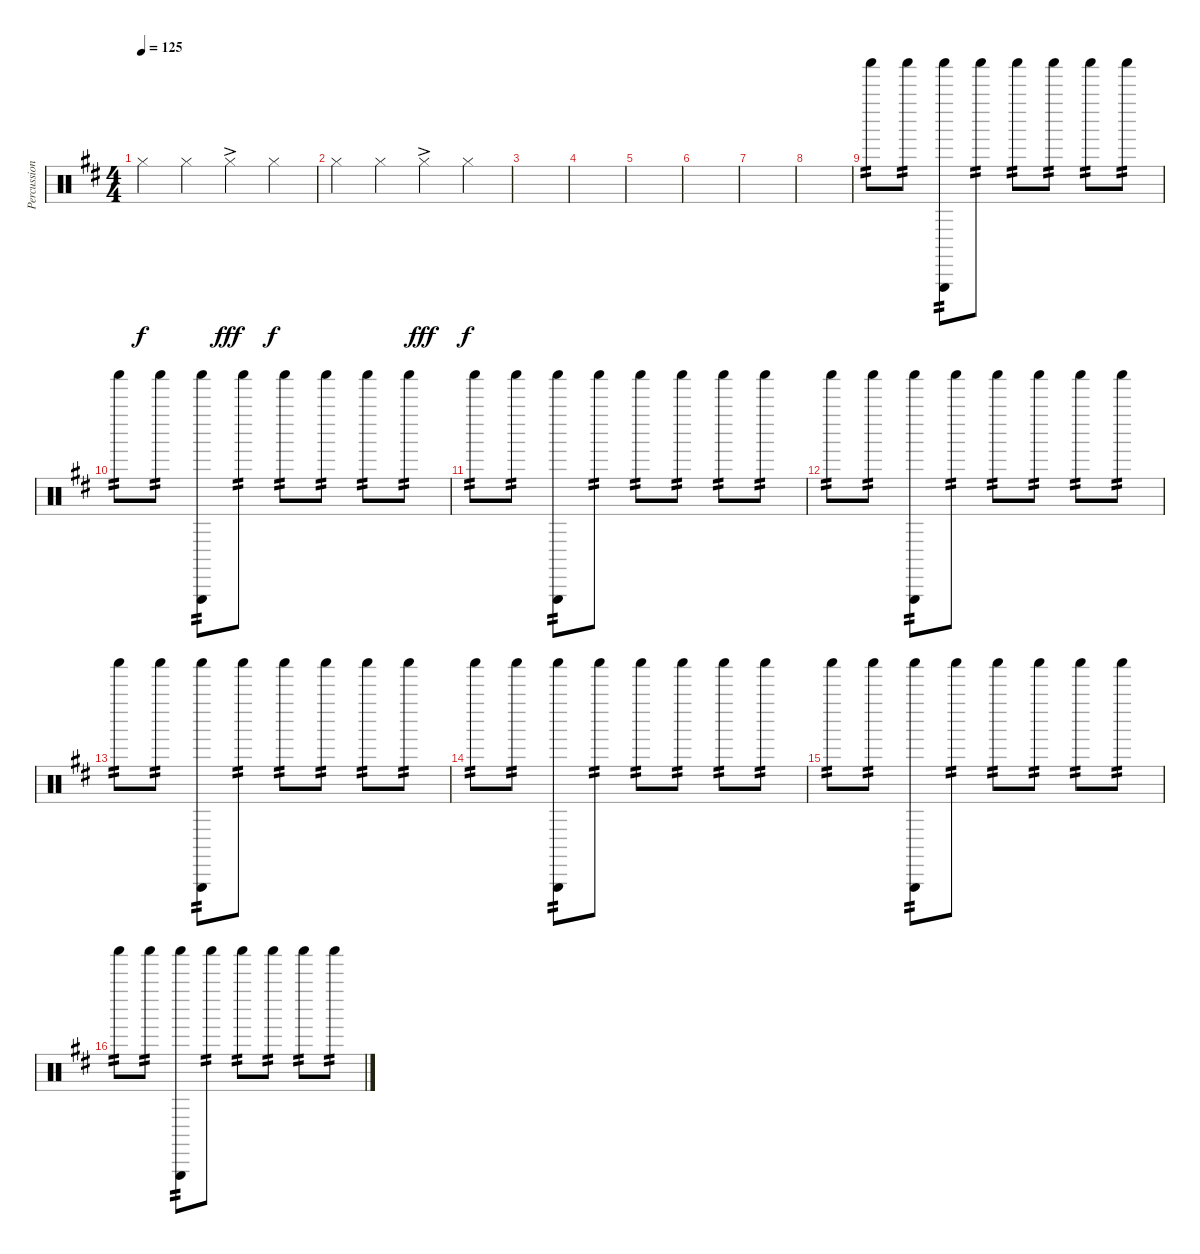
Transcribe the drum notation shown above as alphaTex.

\track ("Percussion" "Percussion") {instrument percussion}
\staff {score}
\articulation defaults
\ts (4 4)
\tempo 125
\clef neutral
\ks d "Hi-Hat (closed)".4{dy f} "Hi-Hat (closed)".4 "Hi-Hat (closed)"{ac}.4{dy fff} "Hi-Hat (closed)".4{dy f}
|
"Hi-Hat (closed)".4 "Hi-Hat (closed)".4 "Hi-Hat (closed)"{ac}.4{dy fff} "Hi-Hat (closed)".4{dy f} |
|
|
|
|
|
|
"Shaker (hit)".8{tp 2} "Shaker (hit)".8{tp 2} ("Shaker (hit)" "Triangle (hit)").8{tp 2} "Shaker (hit)".8{tp 2} "Shaker (hit)".8{tp 2} "Shaker (hit)".8{tp 2} "Shaker (hit)".8{tp 2} "Shaker (hit)".8{tp 2} |
"Shaker (hit)".8{tp 2} "Shaker (hit)".8{tp 2} ("Shaker (hit)" "Triangle (hit)").8{tp 2} "Shaker (hit)".8{tp 2} "Shaker (hit)".8{tp 2} "Shaker (hit)".8{tp 2} "Shaker (hit)".8{tp 2} "Shaker (hit)".8{tp 2} |
"Shaker (hit)".8{tp 2} "Shaker (hit)".8{tp 2} ("Shaker (hit)" "Triangle (hit)").8{tp 2} "Shaker (hit)".8{tp 2} "Shaker (hit)".8{tp 2} "Shaker (hit)".8{tp 2} "Shaker (hit)".8{tp 2} "Shaker (hit)".8{tp 2} |
"Shaker (hit)".8{tp 2} "Shaker (hit)".8{tp 2} ("Shaker (hit)" "Triangle (hit)").8{tp 2} "Shaker (hit)".8{tp 2} "Shaker (hit)".8{tp 2} "Shaker (hit)".8{tp 2} "Shaker (hit)".8{tp 2} "Shaker (hit)".8{tp 2} |
"Shaker (hit)".8{tp 2} "Shaker (hit)".8{tp 2} ("Shaker (hit)" "Triangle (hit)").8{tp 2} "Shaker (hit)".8{tp 2} "Shaker (hit)".8{tp 2} "Shaker (hit)".8{tp 2} "Shaker (hit)".8{tp 2} "Shaker (hit)".8{tp 2} |
"Shaker (hit)".8{tp 2} "Shaker (hit)".8{tp 2} ("Shaker (hit)" "Triangle (hit)").8{tp 2} "Shaker (hit)".8{tp 2} "Shaker (hit)".8{tp 2} "Shaker (hit)".8{tp 2} "Shaker (hit)".8{tp 2} "Shaker (hit)".8{tp 2} |
"Shaker (hit)".8{tp 2} "Shaker (hit)".8{tp 2} ("Shaker (hit)" "Triangle (hit)").8{tp 2} "Shaker (hit)".8{tp 2} "Shaker (hit)".8{tp 2} "Shaker (hit)".8{tp 2} "Shaker (hit)".8{tp 2} "Shaker (hit)".8{tp 2} |
"Shaker (hit)".8{tp 2} "Shaker (hit)".8{tp 2} ("Shaker (hit)" "Triangle (hit)").8{tp 2} "Shaker (hit)".8{tp 2} "Shaker (hit)".8{tp 2} "Shaker (hit)".8{tp 2} "Shaker (hit)".8{tp 2} "Shaker (hit)".8{tp 2}
